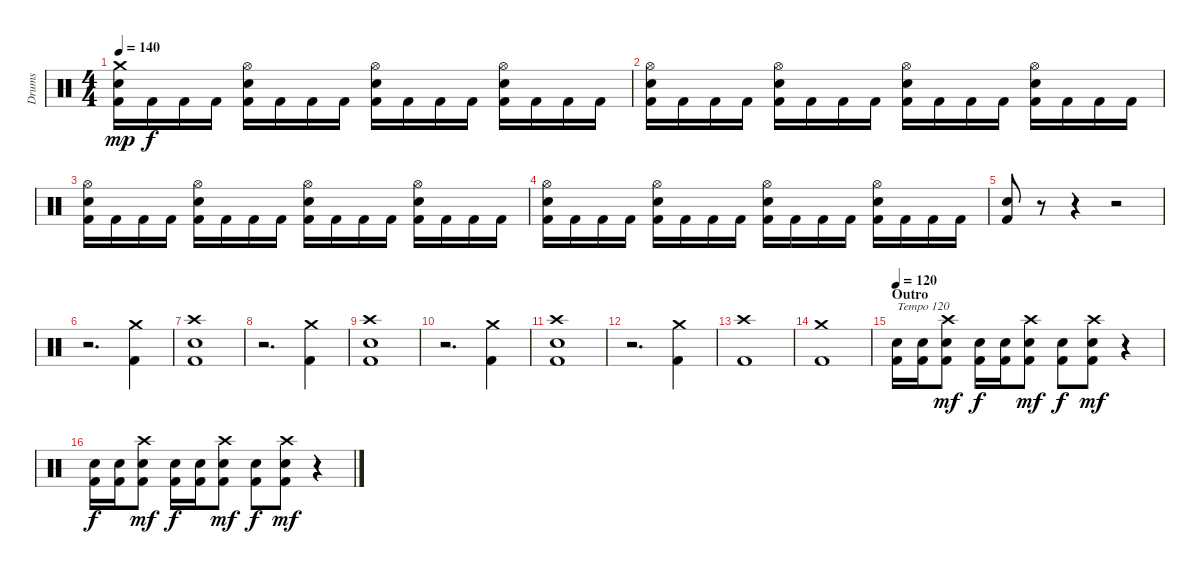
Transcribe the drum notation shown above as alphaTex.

\track ("Drums" "Drums") {instrument percussion}
\staff {score}
\articulation defaults
\ts (4 4)
\tempo 140
\clef neutral
\ks c
("Crash medium (hit)" "Electric Snare (hit)" "Kick (hit) 2").16{dy mp} "Kick (hit) 2".16{dy f} "Kick (hit) 2".16 "Kick (hit) 2".16 ("Hi-Hat (open)" "Electric Snare (hit)" "Kick (hit) 2").16 "Kick (hit) 2".16 "Kick (hit) 2".16 "Kick (hit) 2".16 ("Hi-Hat (open)" "Electric Snare (hit)" "Kick (hit) 2").16 "Kick (hit) 2".16 "Kick (hit) 2".16 "Kick (hit) 2".16 ("Hi-Hat (open)" "Electric Snare (hit)" "Kick (hit) 2").16 "Kick (hit) 2".16 "Kick (hit) 2".16 "Kick (hit) 2".16 |
("Hi-Hat (open)" "Electric Snare (hit)" "Kick (hit) 2").16 "Kick (hit) 2".16 "Kick (hit) 2".16 "Kick (hit) 2".16 ("Hi-Hat (open)" "Electric Snare (hit)" "Kick (hit) 2").16 "Kick (hit) 2".16 "Kick (hit) 2".16 "Kick (hit) 2".16 ("Hi-Hat (open)" "Electric Snare (hit)" "Kick (hit) 2").16 "Kick (hit) 2".16 "Kick (hit) 2".16 "Kick (hit) 2".16 ("Hi-Hat (open)" "Electric Snare (hit)" "Kick (hit) 2").16 "Kick (hit) 2".16 "Kick (hit) 2".16 "Kick (hit) 2".16 |
("Hi-Hat (open)" "Electric Snare (hit)" "Kick (hit) 2").16 "Kick (hit) 2".16 "Kick (hit) 2".16 "Kick (hit) 2".16 ("Hi-Hat (open)" "Electric Snare (hit)" "Kick (hit) 2").16 "Kick (hit) 2".16 "Kick (hit) 2".16 "Kick (hit) 2".16 ("Hi-Hat (open)" "Electric Snare (hit)" "Kick (hit) 2").16 "Kick (hit) 2".16 "Kick (hit) 2".16 "Kick (hit) 2".16 ("Hi-Hat (open)" "Electric Snare (hit)" "Kick (hit) 2").16 "Kick (hit) 2".16 "Kick (hit) 2".16 "Kick (hit) 2".16 |
("Hi-Hat (open)" "Electric Snare (hit)" "Kick (hit) 2").16 "Kick (hit) 2".16 "Kick (hit) 2".16 "Kick (hit) 2".16 ("Hi-Hat (open)" "Electric Snare (hit)" "Kick (hit) 2").16 "Kick (hit) 2".16 "Kick (hit) 2".16 "Kick (hit) 2".16 ("Hi-Hat (open)" "Electric Snare (hit)" "Kick (hit) 2").16 "Kick (hit) 2".16 "Kick (hit) 2".16 "Kick (hit) 2".16 ("Hi-Hat (open)" "Electric Snare (hit)" "Kick (hit) 2").16 "Kick (hit) 2".16 "Kick (hit) 2".16 "Kick (hit) 2".16 |
("Electric Snare (hit)" "Kick (hit) 2").8 r.8 r.4 r.2 |
r.2{d} ("Crash medium (hit)" "Kick (hit) 2").4 |
("Crash high (hit)" "Electric Snare (hit)" "Kick (hit) 2").1 |
r.2{d} ("Crash medium (hit)" "Kick (hit) 2").4 |
("Crash high (hit)" "Electric Snare (hit)" "Kick (hit) 2").1 |
r.2{d} ("Crash medium (hit)" "Kick (hit) 2").4 |
("Crash high (hit)" "Electric Snare (hit)" "Kick (hit) 2").1 |
r.2{d} ("Crash medium (hit)" "Kick (hit) 2").4 |
("Crash high (hit)" "Kick (hit) 2").1 |
("Crash medium (hit)" "Kick (hit) 2").1 |
\section ("" "Outro")
\tempo 120
("Electric Snare (hit)" "Kick (hit) 2").16{txt "Tempo 120"} ("Electric Snare (hit)" "Kick (hit) 2").16 ("Crash high (hit)" "Electric Snare (hit)" "Kick (hit) 2").8{dy mf} ("Electric Snare (hit)" "Kick (hit) 2").16{dy f} ("Electric Snare (hit)" "Kick (hit) 2").16 ("Crash high (hit)" "Electric Snare (hit)" "Kick (hit) 2").8{dy mf} ("Electric Snare (hit)" "Kick (hit) 2").8{dy f} ("Crash high (hit)" "Electric Snare (hit)" "Kick (hit) 2").8{dy mf} r.4 |
("Electric Snare (hit)" "Kick (hit) 2").16{dy f} ("Electric Snare (hit)" "Kick (hit) 2").16 ("Crash high (hit)" "Electric Snare (hit)" "Kick (hit) 2").8{dy mf} ("Electric Snare (hit)" "Kick (hit) 2").16{dy f} ("Electric Snare (hit)" "Kick (hit) 2").16 ("Crash high (hit)" "Electric Snare (hit)" "Kick (hit) 2").8{dy mf} ("Electric Snare (hit)" "Kick (hit) 2").8{dy f} ("Crash high (hit)" "Electric Snare (hit)" "Kick (hit) 2").8{dy mf} r.4
